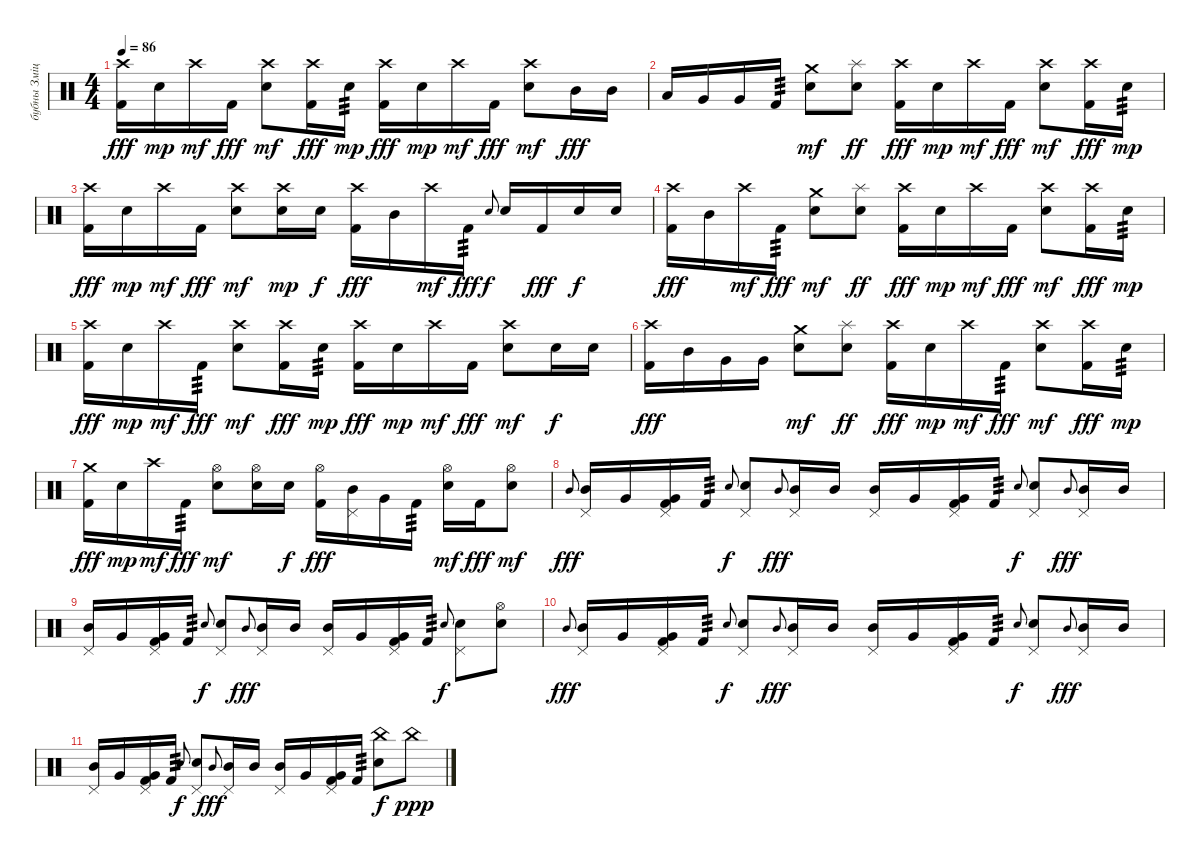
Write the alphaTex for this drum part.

\track ("бубны Змiцер" "бубны Змiц") {instrument percussion}
\staff {score}
\articulation defaults
\ts (4 4)
\tempo 86
\clef neutral
\ks c
("Crash high (hit)" "Kick (hit) 2").16{dy fff} "Electric Snare (hit)".16{dy mp} "Crash high (hit)".16{dy mf} "Kick (hit) 2".16{dy fff} ("Crash high (hit)" "Electric Snare (hit)").8{dy mf} ("Crash high (hit)" "Kick (hit) 2").16{dy fff} "Electric Snare (hit)".16{tp 3 dy mp} ("Crash high (hit)" "Kick (hit) 2").16{dy fff} "Electric Snare (hit)".16{dy mp} "Crash high (hit)".16{dy mf} "Kick (hit) 2".16{dy fff} ("Crash high (hit)" "Electric Snare (hit)").8{dy mf} "Mid Tom (hit)".16{dy fff} "Mid Tom (hit)".16 |
"Low Tom (hit)".16 "Very Low Tom (hit)".16 "Very Low Tom (hit)".16 "Kick (hit) 2".16{tp 3} ("Crash medium (hit)" "Electric Snare (hit)").8{dy mf} ("Splash (hit)" "Electric Snare (hit)").8{dy ff} ("Crash high (hit)" "Kick (hit) 2").16{dy fff} "Electric Snare (hit)".16{dy mp} "Crash high (hit)".16{dy mf} "Kick (hit) 2".16{dy fff} ("Crash high (hit)" "Electric Snare (hit)").8{dy mf} ("Crash high (hit)" "Kick (hit) 2").16{dy fff} "Electric Snare (hit)".16{tp 3 dy mp} |
("Crash high (hit)" "Kick (hit) 2").16{dy fff} "Electric Snare (hit)".16{dy mp} "Crash high (hit)".16{dy mf} "Kick (hit) 2".16{dy fff} ("Crash high (hit)" "Electric Snare (hit)").8{dy mf} ("Crash high (hit)" "Electric Snare (hit)").16{dy mp} "Electric Snare (hit)".16{dy f} ("Crash high (hit)" "Kick (hit) 2").16{dy fff} "Mid Tom (hit)".16 "Crash high (hit)".16{dy mf} "Kick (hit) 2".16{tp 3 dy fff} "Electric Snare (hit)".8{gr onbeat dy f} "Electric Snare (hit)".16 "Kick (hit) 2".16{dy fff} "Electric Snare (hit)".16{dy f} "Electric Snare (hit)".16 |
("Crash high (hit)" "Kick (hit) 2").16{dy fff} "Mid Tom (hit)".16 "Crash high (hit)".16{dy mf} "Kick (hit) 2".16{tp 3 dy fff} ("Crash medium (hit)" "Electric Snare (hit)").8{dy mf} ("Splash (hit)" "Electric Snare (hit)").8{dy ff} ("Crash high (hit)" "Kick (hit) 2").16{dy fff} "Electric Snare (hit)".16{dy mp} "Crash high (hit)".16{dy mf} "Kick (hit) 2".16{dy fff} ("Crash high (hit)" "Electric Snare (hit)").8{dy mf} ("Crash high (hit)" "Kick (hit) 2").16{dy fff} "Electric Snare (hit)".16{tp 3 dy mp} |
("Crash high (hit)" "Kick (hit) 2").16{dy fff} "Electric Snare (hit)".16{dy mp} "Crash high (hit)".16{dy mf} "Kick (hit) 2".16{tp 3 dy fff} ("Crash high (hit)" "Electric Snare (hit)").8{dy mf} ("Crash high (hit)" "Kick (hit) 2").16{dy fff} "Electric Snare (hit)".16{tp 3 dy mp} ("Crash high (hit)" "Kick (hit) 2").16{dy fff} "Electric Snare (hit)".16{dy mp} "Crash high (hit)".16{dy mf} "Kick (hit) 2".16{dy fff} ("Crash high (hit)" "Electric Snare (hit)").8{dy mf} "Electric Snare (hit)".16{dy f} "Electric Snare (hit)".16 |
("Crash high (hit)" "Kick (hit) 2").16{dy fff} "Mid Tom (hit)".16 "Very Low Tom (hit)".16 "Very Low Tom (hit)".16 ("Crash medium (hit)" "Electric Snare (hit)").8{dy mf} ("Splash (hit)" "Electric Snare (hit)").8{dy ff} ("Crash high (hit)" "Kick (hit) 2").16{dy fff} "Electric Snare (hit)".16{dy mp} "Crash high (hit)".16{dy mf} "Kick (hit) 2".16{tp 3 dy fff} ("Crash high (hit)" "Electric Snare (hit)").8{dy mf} ("Crash high (hit)" "Kick (hit) 2").16{dy fff} "Electric Snare (hit)".16{tp 3 dy mp} |
("Crash medium (hit)" "Kick (hit) 2").16{dy fff} "Electric Snare (hit)".16{dy mp} "Crash high (hit)".16{dy mf} "Kick (hit) 2".16{tp 3 dy fff} ("Hi-Hat (open)" "Electric Snare (hit)").8{dy mf} ("Hi-Hat (open)" "Electric Snare (hit)").16 "Electric Snare (hit)".16{dy f} ("Hi-Hat (open)" "Kick (hit) 2").16{dy fff} ("Pedal Hi-Hat (hit)" "Mid Tom (hit)").16 "Very Low Tom (hit)".16 "Kick (hit) 2".16{tp 3} ("Hi-Hat (open)" "Electric Snare (hit)").16{dy mf} "Kick (hit) 2".16{dy fff} ("Hi-Hat (open)" "Electric Snare (hit)").8{dy mf} |
"Mid Tom (hit)".8{gr onbeat dy fff} ("Mid Tom (hit)" "Pedal Hi-Hat (hit)").16 "Very Low Tom (hit)".16 ("Very Low Tom (hit)" "Pedal Hi-Hat (hit)" "Kick (hit) 2").16 "Kick (hit) 2".16{tp 3} "Electric Snare (hit)".8{gr onbeat dy f} ("Electric Snare (hit)" "Pedal Hi-Hat (hit)").8 "Mid Tom (hit)".8{gr onbeat dy fff} ("Mid Tom (hit)" "Pedal Hi-Hat (hit)").16 "Mid Tom (hit)".16 ("Mid Tom (hit)" "Pedal Hi-Hat (hit)").16 "Very Low Tom (hit)".16 ("Very Low Tom (hit)" "Pedal Hi-Hat (hit)" "Kick (hit) 2").16 "Kick (hit) 2".16{tp 3} "Electric Snare (hit)".8{gr onbeat dy f} ("Electric Snare (hit)" "Pedal Hi-Hat (hit)").8 "Mid Tom (hit)".8{gr onbeat dy fff} ("Mid Tom (hit)" "Pedal Hi-Hat (hit)").16 "Mid Tom (hit)".16 |
("Mid Tom (hit)" "Pedal Hi-Hat (hit)").16 "Very Low Tom (hit)".16 ("Very Low Tom (hit)" "Pedal Hi-Hat (hit)" "Kick (hit) 2").16 "Kick (hit) 2".16{tp 3} "Electric Snare (hit)".8{gr onbeat dy f} ("Electric Snare (hit)" "Pedal Hi-Hat (hit)").8 "Mid Tom (hit)".8{gr onbeat dy fff} ("Mid Tom (hit)" "Pedal Hi-Hat (hit)").16 "Mid Tom (hit)".16 ("Mid Tom (hit)" "Pedal Hi-Hat (hit)").16 "Very Low Tom (hit)".16 ("Very Low Tom (hit)" "Pedal Hi-Hat (hit)" "Kick (hit) 2").16 "Kick (hit) 2".16{tp 3} "Electric Snare (hit)".8{gr onbeat dy f} ("Electric Snare (hit)" "Pedal Hi-Hat (hit)").8 ("Electric Snare (hit)" "Hi-Hat (open)").8 |
"Mid Tom (hit)".8{gr onbeat dy fff} ("Mid Tom (hit)" "Pedal Hi-Hat (hit)").16 "Very Low Tom (hit)".16 ("Very Low Tom (hit)" "Pedal Hi-Hat (hit)" "Kick (hit) 2").16 "Kick (hit) 2".16{tp 3} "Electric Snare (hit)".8{gr onbeat dy f} ("Electric Snare (hit)" "Pedal Hi-Hat (hit)").8 "Mid Tom (hit)".8{gr onbeat dy fff} ("Mid Tom (hit)" "Pedal Hi-Hat (hit)").16 "Mid Tom (hit)".16 ("Mid Tom (hit)" "Pedal Hi-Hat (hit)").16 "Very Low Tom (hit)".16 ("Very Low Tom (hit)" "Pedal Hi-Hat (hit)" "Kick (hit) 2").16 "Kick (hit) 2".16{tp 3} "Electric Snare (hit)".8{gr onbeat dy f} ("Electric Snare (hit)" "Pedal Hi-Hat (hit)").8 "Mid Tom (hit)".8{gr onbeat dy fff} ("Mid Tom (hit)" "Pedal Hi-Hat (hit)").16 "Mid Tom (hit)".16 |
("Mid Tom (hit)" "Pedal Hi-Hat (hit)").16 "Very Low Tom (hit)".16 ("Very Low Tom (hit)" "Pedal Hi-Hat (hit)" "Kick (hit) 2").16 "Kick (hit) 2".16{tp 3} "Electric Snare (hit)".8{gr onbeat dy f} ("Electric Snare (hit)" "Pedal Hi-Hat (hit)").8 "Mid Tom (hit)".8{gr onbeat dy fff} ("Mid Tom (hit)" "Pedal Hi-Hat (hit)").16 "Mid Tom (hit)".16 ("Mid Tom (hit)" "Pedal Hi-Hat (hit)").16 "Very Low Tom (hit)".16 ("Very Low Tom (hit)" "Pedal Hi-Hat (hit)" "Kick (hit) 2").16 "Kick (hit) 2".16{tp 3} ("China (hit)" "Electric Snare (hit)").8{dy f} "China (hit)".8{dy ppp}
